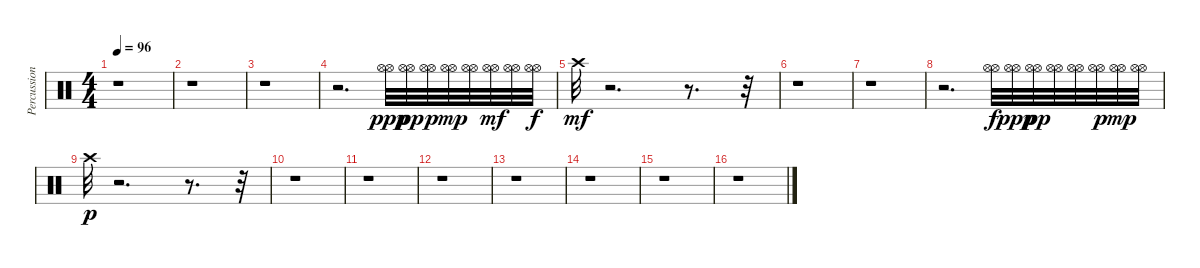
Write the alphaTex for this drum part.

\track ("Percussion" "Percussion") {instrument percussion}
\staff {score}
\articulation defaults
\ts (4 4)
\tempo 96
\clef neutral
\ks c
r.1{dy ppp} |
r.1 |
r.1 |
r.2{d} ("Hi-Hat (open)" "Hi-Hat (open)").32 ("Hi-Hat (open)" "Hi-Hat (open)").32{dy pp} ("Hi-Hat (open)" "Hi-Hat (open)").32{dy p} ("Hi-Hat (open)" "Hi-Hat (open)").32{dy mp} ("Hi-Hat (open)" "Hi-Hat (open)").32 ("Hi-Hat (open)" "Hi-Hat (open)").32{dy mf} ("Hi-Hat (open)" "Hi-Hat (open)").32 ("Hi-Hat (open)" "Hi-Hat (open)").32{dy f} |
"Crash high (hit)".32{dy mf} r.2{d} r.8{d} r.32 |
r.1 |
r.1 |
r.2{d} ("Hi-Hat (open)" "Hi-Hat (open)").32{dy f} ("Hi-Hat (open)" "Hi-Hat (open)").32{dy ppp} ("Hi-Hat (open)" "Hi-Hat (open)").32{dy pp} ("Hi-Hat (open)" "Hi-Hat (open)").32 ("Hi-Hat (open)" "Hi-Hat (open)").32 ("Hi-Hat (open)" "Hi-Hat (open)").32{dy p} ("Hi-Hat (open)" "Hi-Hat (open)").32{dy mp} ("Hi-Hat (open)" "Hi-Hat (open)").32 |
"Crash high (hit)".32{dy p} r.2{d} r.8{d} r.32 |
r.1 |
r.1 |
r.1 |
r.1 |
r.1 |
r.1 |
r.1
